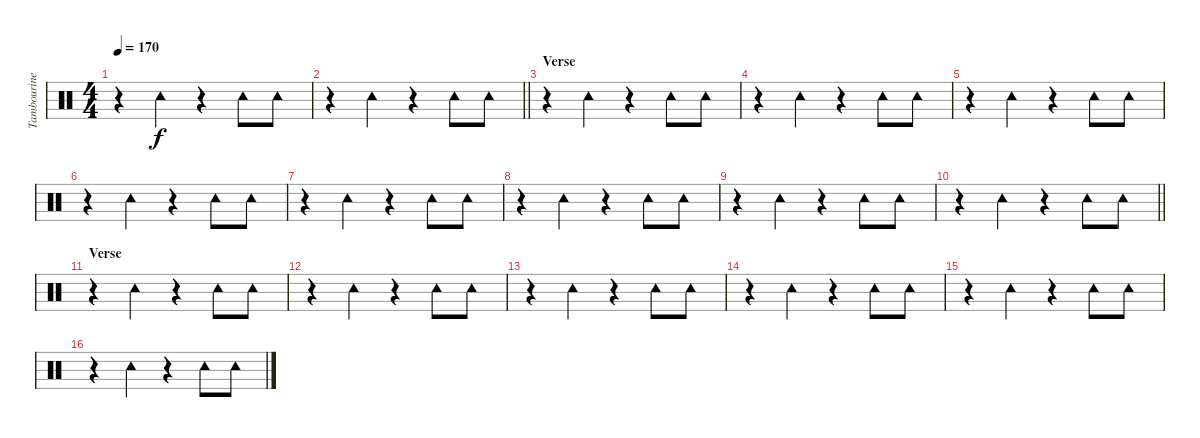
\track ("Tambourine" "Tambourine") {instrument percussion}
\staff {score}
\articulation defaults
\ts (4 4)
\tempo 170
\clef neutral
\ks c
r.4{dy f} "Tambourine (hit)".4 r.4 "Tambourine (hit)".8 "Tambourine (hit)".8 |
\barLineRight lightlight
r.4 "Tambourine (hit)".4 r.4 "Tambourine (hit)".8 "Tambourine (hit)".8 |
\section ("" "Verse")
r.4 "Tambourine (hit)".4 r.4 "Tambourine (hit)".8 "Tambourine (hit)".8 |
r.4 "Tambourine (hit)".4 r.4 "Tambourine (hit)".8 "Tambourine (hit)".8 |
r.4 "Tambourine (hit)".4 r.4 "Tambourine (hit)".8 "Tambourine (hit)".8 |
r.4 "Tambourine (hit)".4 r.4 "Tambourine (hit)".8 "Tambourine (hit)".8 |
r.4 "Tambourine (hit)".4 r.4 "Tambourine (hit)".8 "Tambourine (hit)".8 |
r.4 "Tambourine (hit)".4 r.4 "Tambourine (hit)".8 "Tambourine (hit)".8 |
r.4 "Tambourine (hit)".4 r.4 "Tambourine (hit)".8 "Tambourine (hit)".8 |
\barLineRight lightlight
r.4 "Tambourine (hit)".4 r.4 "Tambourine (hit)".8 "Tambourine (hit)".8 |
\section ("" "Verse")
r.4 "Tambourine (hit)".4 r.4 "Tambourine (hit)".8 "Tambourine (hit)".8 |
r.4 "Tambourine (hit)".4 r.4 "Tambourine (hit)".8 "Tambourine (hit)".8 |
r.4 "Tambourine (hit)".4 r.4 "Tambourine (hit)".8 "Tambourine (hit)".8 |
r.4 "Tambourine (hit)".4 r.4 "Tambourine (hit)".8 "Tambourine (hit)".8 |
r.4 "Tambourine (hit)".4 r.4 "Tambourine (hit)".8 "Tambourine (hit)".8 |
r.4 "Tambourine (hit)".4 r.4 "Tambourine (hit)".8 "Tambourine (hit)".8
